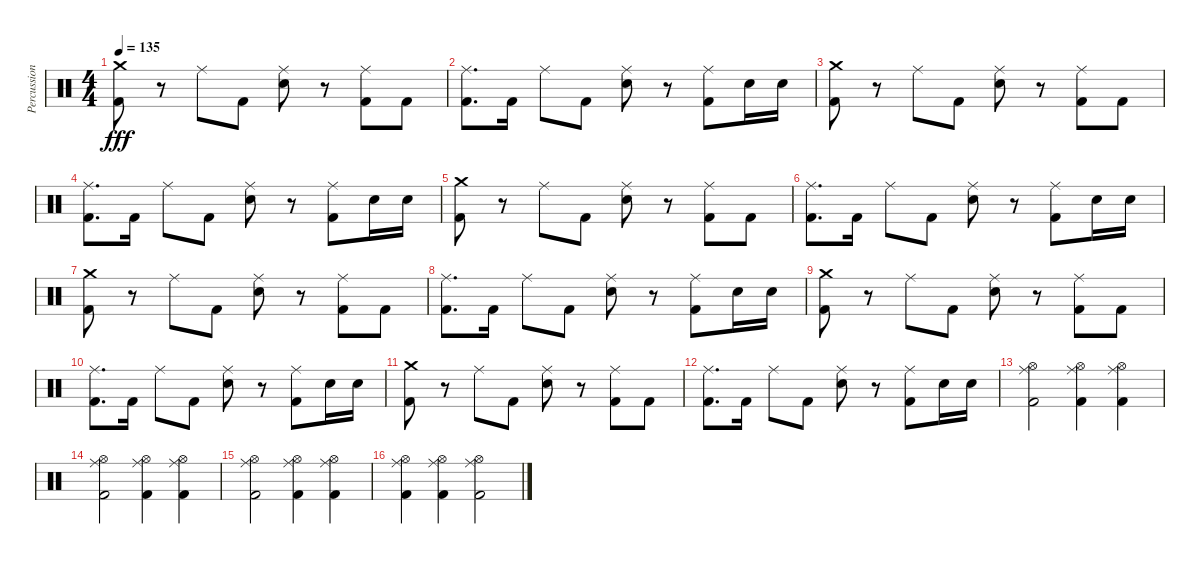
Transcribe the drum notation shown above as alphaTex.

\track ("Percussion" "Percussion") {instrument percussion}
\staff {score}
\articulation defaults
\ts (4 4)
\tempo 135
\clef neutral
\ks c
("Crash medium (hit)" "Kick (hit) 2").8{dy fff} r.8 "Ride (middle)".8 "Kick (hit) 2".8 ("Ride (middle)" "Electric Snare (hit)").8 r.8 ("Ride (middle)" "Kick (hit) 2").8 "Kick (hit) 2".8 |
("Ride (middle)" "Kick (hit) 2").8{d} "Kick (hit) 2".16 "Ride (middle)".8 "Kick (hit) 2".8 ("Ride (middle)" "Electric Snare (hit)").8 r.8 ("Ride (middle)" "Kick (hit) 2").8 "Electric Snare (hit)".16 "Electric Snare (hit)".16 |
("Crash medium (hit)" "Kick (hit) 2").8 r.8 "Ride (middle)".8 "Kick (hit) 2".8 ("Ride (middle)" "Electric Snare (hit)").8 r.8 ("Ride (middle)" "Kick (hit) 2").8 "Kick (hit) 2".8 |
("Ride (middle)" "Kick (hit) 2").8{d} "Kick (hit) 2".16 "Ride (middle)".8 "Kick (hit) 2".8 ("Ride (middle)" "Electric Snare (hit)").8 r.8 ("Ride (middle)" "Kick (hit) 2").8 "Electric Snare (hit)".16 "Electric Snare (hit)".16 |
("Crash medium (hit)" "Kick (hit) 2").8 r.8 "Ride (middle)".8 "Kick (hit) 2".8 ("Ride (middle)" "Electric Snare (hit)").8 r.8 ("Ride (middle)" "Kick (hit) 2").8 "Kick (hit) 2".8 |
("Ride (middle)" "Kick (hit) 2").8{d} "Kick (hit) 2".16 "Ride (middle)".8 "Kick (hit) 2".8 ("Ride (middle)" "Electric Snare (hit)").8 r.8 ("Ride (middle)" "Kick (hit) 2").8 "Electric Snare (hit)".16 "Electric Snare (hit)".16 |
("Crash medium (hit)" "Kick (hit) 2").8 r.8 "Ride (middle)".8 "Kick (hit) 2".8 ("Ride (middle)" "Electric Snare (hit)").8 r.8 ("Ride (middle)" "Kick (hit) 2").8 "Kick (hit) 2".8 |
("Ride (middle)" "Kick (hit) 2").8{d} "Kick (hit) 2".16 "Ride (middle)".8 "Kick (hit) 2".8 ("Ride (middle)" "Electric Snare (hit)").8 r.8 ("Ride (middle)" "Kick (hit) 2").8 "Electric Snare (hit)".16 "Electric Snare (hit)".16 |
("Crash medium (hit)" "Kick (hit) 2").8 r.8 "Ride (middle)".8 "Kick (hit) 2".8 ("Ride (middle)" "Electric Snare (hit)").8 r.8 ("Ride (middle)" "Kick (hit) 2").8 "Kick (hit) 2".8 |
("Ride (middle)" "Kick (hit) 2").8{d} "Kick (hit) 2".16 "Ride (middle)".8 "Kick (hit) 2".8 ("Ride (middle)" "Electric Snare (hit)").8 r.8 ("Ride (middle)" "Kick (hit) 2").8 "Electric Snare (hit)".16 "Electric Snare (hit)".16 |
("Crash medium (hit)" "Kick (hit) 2").8 r.8 "Ride (middle)".8 "Kick (hit) 2".8 ("Ride (middle)" "Electric Snare (hit)").8 r.8 ("Ride (middle)" "Kick (hit) 2").8 "Kick (hit) 2".8 |
("Ride (middle)" "Kick (hit) 2").8{d} "Kick (hit) 2".16 "Ride (middle)".8 "Kick (hit) 2".8 ("Ride (middle)" "Electric Snare (hit)").8 r.8 ("Ride (middle)" "Kick (hit) 2").8 "Electric Snare (hit)".16 "Electric Snare (hit)".16 |
("Hi-Hat (open)" "Kick (hit) 2" "Ride (middle)").2 ("Hi-Hat (open)" "Kick (hit) 2" "Ride (middle)").4 ("Hi-Hat (open)" "Kick (hit) 2" "Ride (middle)").4 |
("Hi-Hat (open)" "Kick (hit) 2" "Ride (middle)").2 ("Hi-Hat (open)" "Kick (hit) 2" "Ride (middle)").4 ("Hi-Hat (open)" "Kick (hit) 2" "Ride (middle)").4 |
("Hi-Hat (open)" "Kick (hit) 2" "Ride (middle)").2 ("Hi-Hat (open)" "Kick (hit) 2" "Ride (middle)").4 ("Hi-Hat (open)" "Kick (hit) 2" "Ride (middle)").4 |
("Hi-Hat (open)" "Kick (hit) 2" "Ride (middle)").4 ("Hi-Hat (open)" "Kick (hit) 2" "Ride (middle)").4 ("Hi-Hat (open)" "Kick (hit) 2" "Ride (middle)").2
